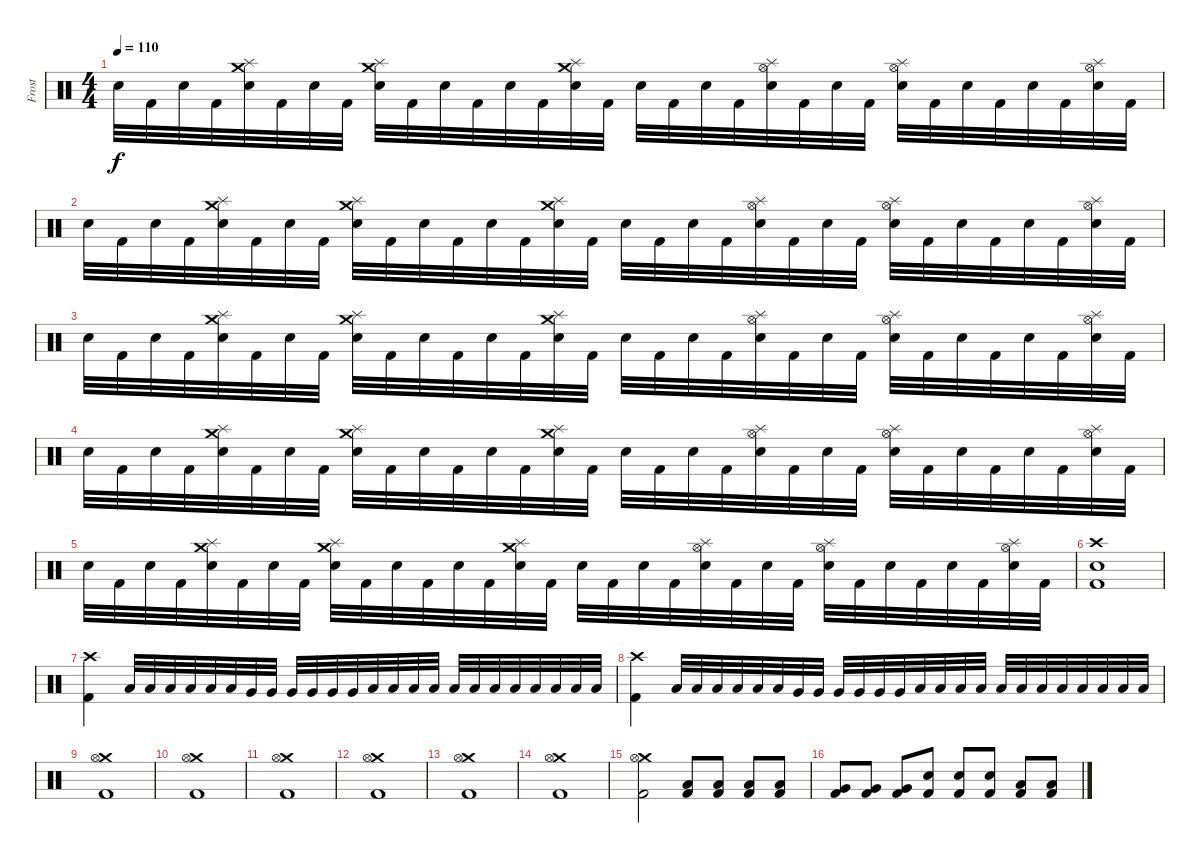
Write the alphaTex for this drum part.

\track ("Frost" "Frost") {instrument percussion}
\staff {score}
\articulation defaults
\ts (4 4)
\tempo 110
\clef neutral
\ks c "Snare (hit) 2".32{dy f} "Kick (hit) 2".32 "Snare (hit) 2".32 "Kick (hit) 2".32
("Crash medium (hit)" "Splash (hit)" "Snare (hit) 2").32 "Kick (hit) 2".32 "Snare (hit) 2".32 "Kick (hit) 2".32 ("Crash medium (hit)" "Splash (hit)" "Snare (hit) 2").32 "Kick (hit) 2".32 "Snare (hit) 2".32 "Kick (hit) 2".32 "Snare (hit) 2".32 "Kick (hit) 2".32 ("Crash medium (hit)" "Splash (hit)" "Snare (hit) 2").32 "Kick (hit) 2".32 "Snare (hit) 2".32 "Kick (hit) 2".32 "Snare (hit) 2".32 "Kick (hit) 2".32 ("Splash (hit)" "Hi-Hat (open)" "Snare (hit) 2").32 "Kick (hit) 2".32 "Snare (hit) 2".32 "Kick (hit) 2".32 ("Splash (hit)" "Hi-Hat (open)" "Snare (hit) 2").32 "Kick (hit) 2".32 "Snare (hit) 2".32 "Kick (hit) 2".32 "Snare (hit) 2".32 "Kick (hit) 2".32 ("Splash (hit)" "Hi-Hat (open)" "Snare (hit) 2").32 "Kick (hit) 2".32 |
"Snare (hit) 2".32 "Kick (hit) 2".32 "Snare (hit) 2".32 "Kick (hit) 2".32 ("Crash medium (hit)" "Splash (hit)" "Snare (hit) 2").32 "Kick (hit) 2".32 "Snare (hit) 2".32 "Kick (hit) 2".32 ("Crash medium (hit)" "Splash (hit)" "Snare (hit) 2").32 "Kick (hit) 2".32 "Snare (hit) 2".32 "Kick (hit) 2".32 "Snare (hit) 2".32 "Kick (hit) 2".32 ("Crash medium (hit)" "Splash (hit)" "Snare (hit) 2").32 "Kick (hit) 2".32 "Snare (hit) 2".32 "Kick (hit) 2".32 "Snare (hit) 2".32 "Kick (hit) 2".32 ("Splash (hit)" "Hi-Hat (open)" "Snare (hit) 2").32 "Kick (hit) 2".32 "Snare (hit) 2".32 "Kick (hit) 2".32 ("Splash (hit)" "Hi-Hat (open)" "Snare (hit) 2").32 "Kick (hit) 2".32 "Snare (hit) 2".32 "Kick (hit) 2".32 "Snare (hit) 2".32 "Kick (hit) 2".32 ("Splash (hit)" "Hi-Hat (open)" "Snare (hit) 2").32 "Kick (hit) 2".32 |
"Snare (hit) 2".32 "Kick (hit) 2".32 "Snare (hit) 2".32 "Kick (hit) 2".32 ("Crash medium (hit)" "Splash (hit)" "Snare (hit) 2").32 "Kick (hit) 2".32 "Snare (hit) 2".32 "Kick (hit) 2".32 ("Crash medium (hit)" "Splash (hit)" "Snare (hit) 2").32 "Kick (hit) 2".32 "Snare (hit) 2".32 "Kick (hit) 2".32 "Snare (hit) 2".32 "Kick (hit) 2".32 ("Crash medium (hit)" "Splash (hit)" "Snare (hit) 2").32 "Kick (hit) 2".32 "Snare (hit) 2".32 "Kick (hit) 2".32 "Snare (hit) 2".32 "Kick (hit) 2".32 ("Splash (hit)" "Hi-Hat (open)" "Snare (hit) 2").32 "Kick (hit) 2".32 "Snare (hit) 2".32 "Kick (hit) 2".32 ("Splash (hit)" "Hi-Hat (open)" "Snare (hit) 2").32 "Kick (hit) 2".32 "Snare (hit) 2".32 "Kick (hit) 2".32 "Snare (hit) 2".32 "Kick (hit) 2".32 ("Splash (hit)" "Hi-Hat (open)" "Snare (hit) 2").32 "Kick (hit) 2".32 |
"Snare (hit) 2".32 "Kick (hit) 2".32 "Snare (hit) 2".32 "Kick (hit) 2".32 ("Crash medium (hit)" "Splash (hit)" "Snare (hit) 2").32 "Kick (hit) 2".32 "Snare (hit) 2".32 "Kick (hit) 2".32 ("Crash medium (hit)" "Splash (hit)" "Snare (hit) 2").32 "Kick (hit) 2".32 "Snare (hit) 2".32 "Kick (hit) 2".32 "Snare (hit) 2".32 "Kick (hit) 2".32 ("Crash medium (hit)" "Splash (hit)" "Snare (hit) 2").32 "Kick (hit) 2".32 "Snare (hit) 2".32 "Kick (hit) 2".32 "Snare (hit) 2".32 "Kick (hit) 2".32 ("Splash (hit)" "Hi-Hat (open)" "Snare (hit) 2").32 "Kick (hit) 2".32 "Snare (hit) 2".32 "Kick (hit) 2".32 ("Splash (hit)" "Hi-Hat (open)" "Snare (hit) 2").32 "Kick (hit) 2".32 "Snare (hit) 2".32 "Kick (hit) 2".32 "Snare (hit) 2".32 "Kick (hit) 2".32 ("Splash (hit)" "Hi-Hat (open)" "Snare (hit) 2").32 "Kick (hit) 2".32 |
"Snare (hit) 2".32 "Kick (hit) 2".32 "Snare (hit) 2".32 "Kick (hit) 2".32 ("Crash medium (hit)" "Splash (hit)" "Snare (hit) 2").32 "Kick (hit) 2".32 "Snare (hit) 2".32 "Kick (hit) 2".32 ("Crash medium (hit)" "Splash (hit)" "Snare (hit) 2").32 "Kick (hit) 2".32 "Snare (hit) 2".32 "Kick (hit) 2".32 "Snare (hit) 2".32 "Kick (hit) 2".32 ("Crash medium (hit)" "Splash (hit)" "Snare (hit) 2").32 "Kick (hit) 2".32 "Snare (hit) 2".32 "Kick (hit) 2".32 "Snare (hit) 2".32 "Kick (hit) 2".32 ("Splash (hit)" "Hi-Hat (open)" "Snare (hit) 2").32 "Kick (hit) 2".32 "Snare (hit) 2".32 "Kick (hit) 2".32 ("Splash (hit)" "Hi-Hat (open)" "Snare (hit) 2").32 "Kick (hit) 2".32 "Snare (hit) 2".32 "Kick (hit) 2".32 "Snare (hit) 2".32 "Kick (hit) 2".32 ("Splash (hit)" "Hi-Hat (open)" "Snare (hit) 2").32 "Kick (hit) 2".32 |
("Crash high (hit)" "Snare (hit) 2" "Kick (hit) 2").1 |
("Crash high (hit)" "Kick (hit) 2").4 "Low Tom (hit)".32 "Low Tom (hit)".32 "Low Tom (hit)".32 "Low Tom (hit)".32 "Low Tom (hit)".32 "Low Tom (hit)".32 "Very Low Tom (hit)".32 "Very Low Tom (hit)".32 "Very Low Tom (hit)".32 "Very Low Tom (hit)".32 "Very Low Tom (hit)".32 "Very Low Tom (hit)".32 "Low Floor Tom (hit)".32 "Low Floor Tom (hit)".32 "Low Floor Tom (hit)".32 "Low Floor Tom (hit)".32 "Low Floor Tom (hit)".32 "Low Floor Tom (hit)".32 "Low Floor Tom (hit)".32 "Low Floor Tom (hit)".32 "Low Floor Tom (hit)".32 "Low Floor Tom (hit)".32 "Low Floor Tom (hit)".32 "Low Floor Tom (hit)".32 |
("Crash high (hit)" "Kick (hit) 2").4 "Low Tom (hit)".32 "Low Tom (hit)".32 "Low Tom (hit)".32 "Low Tom (hit)".32 "Low Tom (hit)".32 "Low Tom (hit)".32 "Very Low Tom (hit)".32 "Very Low Tom (hit)".32 "Very Low Tom (hit)".32 "Very Low Tom (hit)".32 "Very Low Tom (hit)".32 "Very Low Tom (hit)".32 "Low Floor Tom (hit)".32 "Low Floor Tom (hit)".32 "Low Floor Tom (hit)".32 "Low Floor Tom (hit)".32 "Low Floor Tom (hit)".32 "Low Floor Tom (hit)".32 "Low Floor Tom (hit)".32 "Low Floor Tom (hit)".32 "Low Floor Tom (hit)".32 "Low Floor Tom (hit)".32 "Low Floor Tom (hit)".32 "Low Floor Tom (hit)".32 |
("Crash medium (hit)" "Hi-Hat (open)" "Kick (hit) 2").1 |
("Crash medium (hit)" "Hi-Hat (open)" "Kick (hit) 2").1 |
("Crash medium (hit)" "Hi-Hat (open)" "Kick (hit) 2").1 |
("Crash medium (hit)" "Hi-Hat (open)" "Kick (hit) 2").1 |
("Crash medium (hit)" "Hi-Hat (open)" "Kick (hit) 2").1 |
("Crash medium (hit)" "Hi-Hat (open)" "Kick (hit) 2").1 |
("Crash medium (hit)" "Hi-Hat (open)" "Kick (hit) 2").2 ("Low Tom (hit)" "Kick (hit) 2").8 ("Low Tom (hit)" "Kick (hit) 2").8 ("Low Tom (hit)" "Kick (hit) 2").8 ("Low Tom (hit)" "Kick (hit) 2").8 |
("Very Low Tom (hit)" "Kick (hit) 2").8 ("Very Low Tom (hit)" "Kick (hit) 2").8 ("Very Low Tom (hit)" "Kick (hit) 2").8 ("Snare (hit) 2" "Kick (hit) 2").8 ("Snare (hit) 2" "Kick (hit) 2").8 ("Snare (hit) 2" "Kick (hit) 2").8 ("Low Floor Tom (hit)" "Kick (hit) 2").8 ("Low Floor Tom (hit)" "Kick (hit) 2").8
